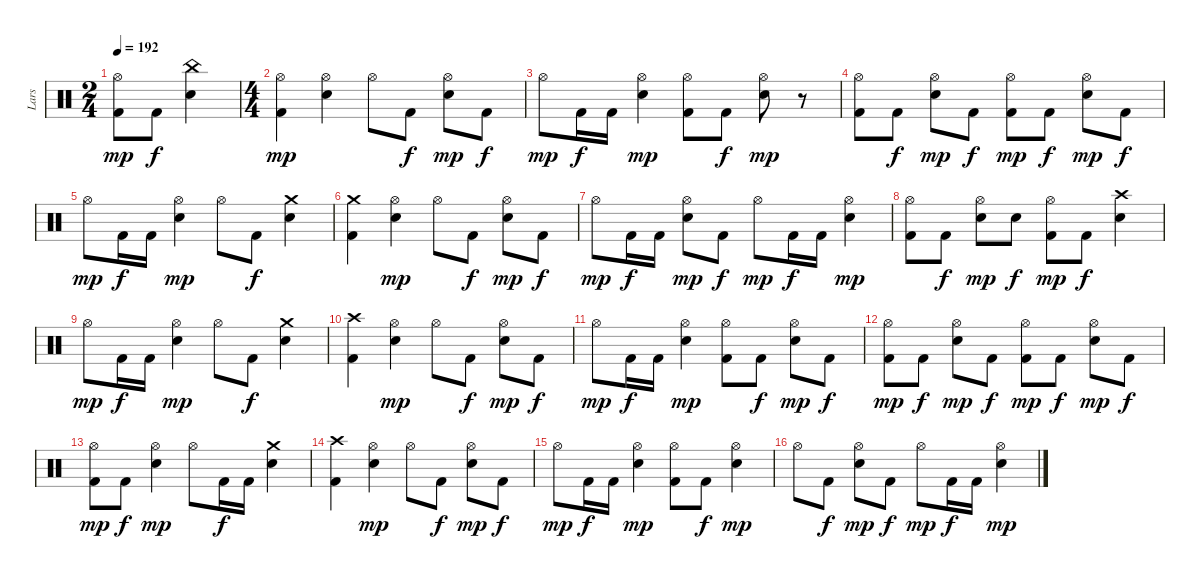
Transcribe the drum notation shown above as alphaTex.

\track ("Lars" "Lars") {instrument percussion}
\staff {score}
\articulation defaults
\ts (2 4)
\tempo 192
\clef neutral
\ks c
("Hi-Hat (open)" "Kick (hit) 2").8{dy mp} "Kick (hit) 2".8{dy f} ("China (hit)" "Snare (hit) 2").4 |
\ts (4 4)
("Hi-Hat (open)" "Kick (hit) 2").4{dy mp} ("Hi-Hat (open)" "Snare (hit) 2").4 "Hi-Hat (open)".8 "Kick (hit) 2".8{dy f} ("Hi-Hat (open)" "Snare (hit) 2").8{dy mp} "Kick (hit) 2".8{dy f} |
"Hi-Hat (open)".8{dy mp} "Kick (hit) 2".16{dy f} "Kick (hit) 2".16 ("Hi-Hat (open)" "Snare (hit) 2").4{dy mp} ("Hi-Hat (open)" "Kick (hit) 2").8 "Kick (hit) 2".8{dy f} ("Hi-Hat (open)" "Snare (hit) 2").8{dy mp} r.8 |
("Hi-Hat (open)" "Kick (hit) 2").8 "Kick (hit) 2".8{dy f} ("Hi-Hat (open)" "Snare (hit) 2").8{dy mp} "Kick (hit) 2".8{dy f} ("Hi-Hat (open)" "Kick (hit) 2").8{dy mp} "Kick (hit) 2".8{dy f} ("Hi-Hat (open)" "Snare (hit) 2").8{dy mp} "Kick (hit) 2".8{dy f} |
"Hi-Hat (open)".8{dy mp} "Kick (hit) 2".16{dy f} "Kick (hit) 2".16 ("Hi-Hat (open)" "Snare (hit) 2").4{dy mp} "Hi-Hat (open)".8 "Kick (hit) 2".8{dy f} ("Crash medium (hit)" "Snare (hit) 2").4 |
("Crash medium (hit)" "Kick (hit) 2").4 ("Hi-Hat (open)" "Snare (hit) 2").4{dy mp} "Hi-Hat (open)".8 "Kick (hit) 2".8{dy f} ("Hi-Hat (open)" "Snare (hit) 2").8{dy mp} "Kick (hit) 2".8{dy f} |
"Hi-Hat (open)".8{dy mp} "Kick (hit) 2".16{dy f} "Kick (hit) 2".16 ("Hi-Hat (open)" "Snare (hit) 2").8{dy mp} "Kick (hit) 2".8{dy f} "Hi-Hat (open)".8{dy mp} "Kick (hit) 2".16{dy f} "Kick (hit) 2".16 ("Hi-Hat (open)" "Snare (hit) 2").4{dy mp} |
("Hi-Hat (open)" "Kick (hit) 2").8 "Kick (hit) 2".8{dy f} ("Hi-Hat (open)" "Snare (hit) 2").8{dy mp} "Snare (hit) 2".8{dy f} ("Hi-Hat (open)" "Kick (hit) 2").8{dy mp} "Kick (hit) 2".8{dy f} ("Crash high (hit)" "Snare (hit) 2").4 |
"Hi-Hat (open)".8{dy mp} "Kick (hit) 2".16{dy f} "Kick (hit) 2".16 ("Hi-Hat (open)" "Snare (hit) 2").4{dy mp} "Hi-Hat (open)".8 "Kick (hit) 2".8{dy f} ("Crash medium (hit)" "Snare (hit) 2").4 |
("Crash high (hit)" "Kick (hit) 2").4 ("Hi-Hat (open)" "Snare (hit) 2").4{dy mp} "Hi-Hat (open)".8 "Kick (hit) 2".8{dy f} ("Hi-Hat (open)" "Snare (hit) 2").8{dy mp} "Kick (hit) 2".8{dy f} |
"Hi-Hat (open)".8{dy mp} "Kick (hit) 2".16{dy f} "Kick (hit) 2".16 ("Hi-Hat (open)" "Snare (hit) 2").4{dy mp} ("Hi-Hat (open)" "Kick (hit) 2").8 "Kick (hit) 2".8{dy f} ("Hi-Hat (open)" "Snare (hit) 2").8{dy mp} "Kick (hit) 2".8{dy f} |
("Hi-Hat (open)" "Kick (hit) 2").8{dy mp} "Kick (hit) 2".8{dy f} ("Hi-Hat (open)" "Snare (hit) 2").8{dy mp} "Kick (hit) 2".8{dy f} ("Hi-Hat (open)" "Kick (hit) 2").8{dy mp} "Kick (hit) 2".8{dy f} ("Hi-Hat (open)" "Snare (hit) 2").8{dy mp} "Kick (hit) 2".8{dy f} |
("Hi-Hat (open)" "Kick (hit) 2").8{dy mp} "Kick (hit) 2".8{dy f} ("Hi-Hat (open)" "Snare (hit) 2").4{dy mp} "Hi-Hat (open)".8 "Kick (hit) 2".16{dy f} "Kick (hit) 2".16 ("Crash medium (hit)" "Snare (hit) 2").4 |
("Crash high (hit)" "Kick (hit) 2").4 ("Hi-Hat (open)" "Snare (hit) 2").4{dy mp} "Hi-Hat (open)".8 "Kick (hit) 2".8{dy f} ("Hi-Hat (open)" "Snare (hit) 2").8{dy mp} "Kick (hit) 2".8{dy f} |
"Hi-Hat (open)".8{dy mp} "Kick (hit) 2".16{dy f} "Kick (hit) 2".16 ("Hi-Hat (open)" "Snare (hit) 2").4{dy mp} ("Hi-Hat (open)" "Kick (hit) 2").8 "Kick (hit) 2".8{dy f} ("Hi-Hat (open)" "Snare (hit) 2").4{dy mp} |
"Hi-Hat (open)".8 "Kick (hit) 2".8{dy f} ("Hi-Hat (open)" "Snare (hit) 2").8{dy mp} "Kick (hit) 2".8{dy f} "Hi-Hat (open)".8{dy mp} "Kick (hit) 2".16{dy f} "Kick (hit) 2".16 ("Hi-Hat (open)" "Snare (hit) 2").4{dy mp}
